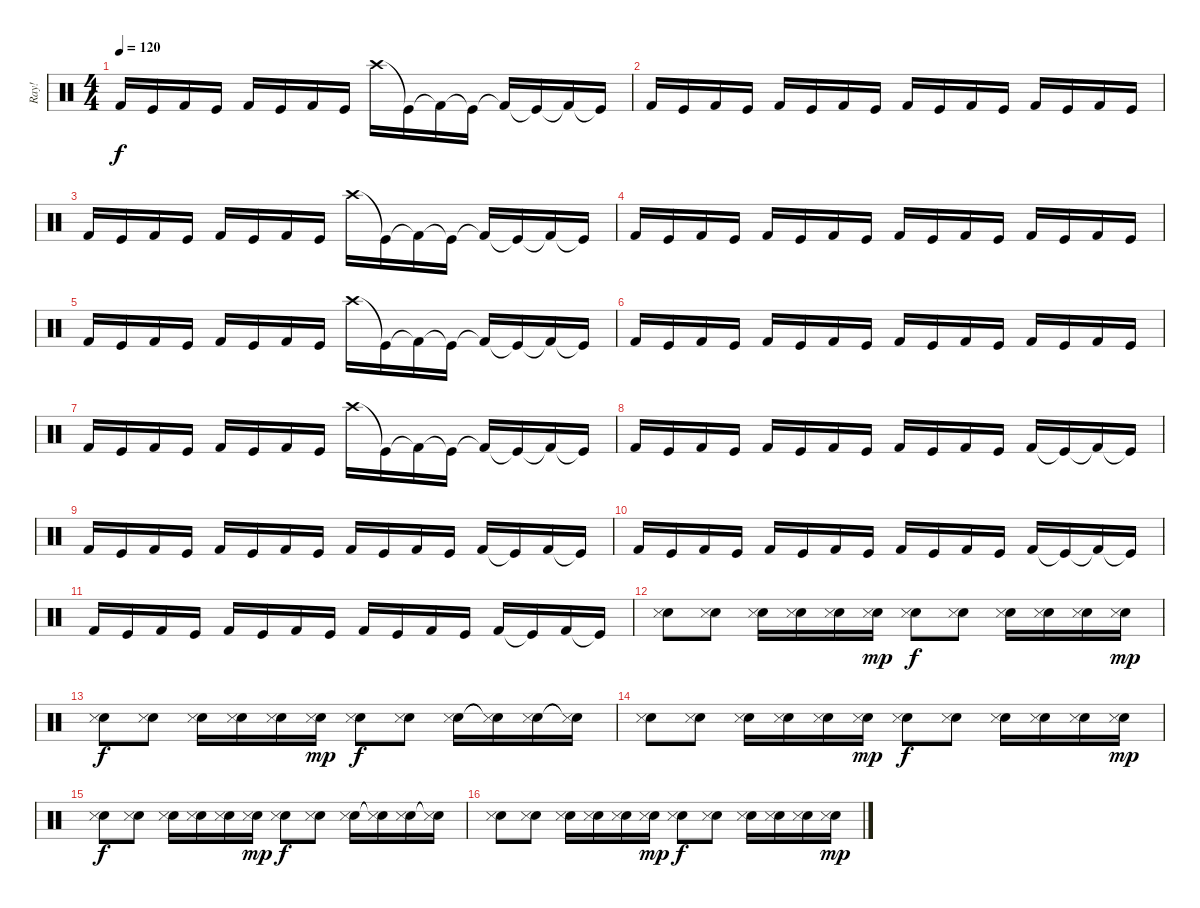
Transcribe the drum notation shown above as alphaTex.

\track ("Ray!" "Ray!") {instrument percussion}
\staff {score}
\articulation defaults
\ts (4 4)
\tempo 120
\clef neutral
\ks c "Kick (hit) 2".16{dy f} "Kick (hit)".16 "Kick (hit) 2".16 "Kick (hit)".16 "Kick (hit) 2".16 "Kick (hit)".16 "Kick (hit) 2".16 "Kick (hit)".16 "Crash high (hit)".16 "Kick (hit)"{t}.16 "Kick (hit) 2"{t}.16 "Kick (hit)"{t}.16 "Kick (hit) 2"{t}.16 "Kick (hit)"{t}.16 "Kick (hit) 2"{t}.16 "Kick (hit)"{t}.16
|
"Kick (hit) 2".16 "Kick (hit)".16 "Kick (hit) 2".16 "Kick (hit)".16 "Kick (hit) 2".16 "Kick (hit)".16 "Kick (hit) 2".16 "Kick (hit)".16 "Kick (hit) 2".16 "Kick (hit)".16 "Kick (hit) 2".16 "Kick (hit)".16 "Kick (hit) 2".16 "Kick (hit)".16 "Kick (hit) 2".16 "Kick (hit)".16 |
"Kick (hit) 2".16 "Kick (hit)".16 "Kick (hit) 2".16 "Kick (hit)".16 "Kick (hit) 2".16 "Kick (hit)".16 "Kick (hit) 2".16 "Kick (hit)".16 "Crash high (hit)".16 "Kick (hit)"{t}.16 "Kick (hit) 2"{t}.16 "Kick (hit)"{t}.16 "Kick (hit) 2"{t}.16 "Kick (hit)"{t}.16 "Kick (hit) 2"{t}.16 "Kick (hit)"{t}.16 |
"Kick (hit) 2".16 "Kick (hit)".16 "Kick (hit) 2".16 "Kick (hit)".16 "Kick (hit) 2".16 "Kick (hit)".16 "Kick (hit) 2".16 "Kick (hit)".16 "Kick (hit) 2".16 "Kick (hit)".16 "Kick (hit) 2".16 "Kick (hit)".16 "Kick (hit) 2".16 "Kick (hit)".16 "Kick (hit) 2".16 "Kick (hit)".16 |
"Kick (hit) 2".16 "Kick (hit)".16 "Kick (hit) 2".16 "Kick (hit)".16 "Kick (hit) 2".16 "Kick (hit)".16 "Kick (hit) 2".16 "Kick (hit)".16 "Crash high (hit)".16 "Kick (hit)"{t}.16 "Kick (hit) 2"{t}.16 "Kick (hit)"{t}.16 "Kick (hit) 2"{t}.16 "Kick (hit)"{t}.16 "Kick (hit) 2"{t}.16 "Kick (hit)"{t}.16 |
"Kick (hit) 2".16 "Kick (hit)".16 "Kick (hit) 2".16 "Kick (hit)".16 "Kick (hit) 2".16 "Kick (hit)".16 "Kick (hit) 2".16 "Kick (hit)".16 "Kick (hit) 2".16 "Kick (hit)".16 "Kick (hit) 2".16 "Kick (hit)".16 "Kick (hit) 2".16 "Kick (hit)".16 "Kick (hit) 2".16 "Kick (hit)".16 |
"Kick (hit) 2".16 "Kick (hit)".16 "Kick (hit) 2".16 "Kick (hit)".16 "Kick (hit) 2".16 "Kick (hit)".16 "Kick (hit) 2".16 "Kick (hit)".16 "Crash high (hit)".16 "Kick (hit)"{t}.16 "Kick (hit) 2"{t}.16 "Kick (hit)"{t}.16 "Kick (hit) 2"{t}.16 "Kick (hit)"{t}.16 "Kick (hit) 2"{t}.16 "Kick (hit)"{t}.16 |
"Kick (hit) 2".16 "Kick (hit)".16 "Kick (hit) 2".16 "Kick (hit)".16 "Kick (hit) 2".16 "Kick (hit)".16 "Kick (hit) 2".16 "Kick (hit)".16 "Kick (hit) 2".16 "Kick (hit)".16 "Kick (hit) 2".16 "Kick (hit)".16 "Kick (hit) 2".16 "Kick (hit)"{t}.16 "Kick (hit) 2"{t}.16 "Kick (hit)"{t}.16 |
"Kick (hit) 2".16 "Kick (hit)".16 "Kick (hit) 2".16 "Kick (hit)".16 "Kick (hit) 2".16 "Kick (hit)".16 "Kick (hit) 2".16 "Kick (hit)".16 "Kick (hit) 2".16 "Kick (hit)".16 "Kick (hit) 2".16 "Kick (hit)".16 "Kick (hit) 2".16 "Kick (hit)"{t}.16 "Kick (hit) 2".16 "Kick (hit)"{t}.16 |
"Kick (hit) 2".16 "Kick (hit)".16 "Kick (hit) 2".16 "Kick (hit)".16 "Kick (hit) 2".16 "Kick (hit)".16 "Kick (hit) 2".16 "Kick (hit)".16 "Kick (hit) 2".16 "Kick (hit)".16 "Kick (hit) 2".16 "Kick (hit)".16 "Kick (hit) 2".16 "Kick (hit)"{t}.16 "Kick (hit) 2"{t}.16 "Kick (hit)"{t}.16 |
"Kick (hit) 2".16 "Kick (hit)".16 "Kick (hit) 2".16 "Kick (hit)".16 "Kick (hit) 2".16 "Kick (hit)".16 "Kick (hit) 2".16 "Kick (hit)".16 "Kick (hit) 2".16 "Kick (hit)".16 "Kick (hit) 2".16 "Kick (hit)".16 "Kick (hit) 2".16 "Kick (hit)"{t}.16 "Kick (hit) 2".16 "Kick (hit)"{t}.16 |
("Snare (hit) 2" "Snare (side stick) 3").8 ("Snare (hit) 2" "Snare (side stick) 3").8 ("Snare (hit) 2" "Snare (side stick) 3").16 ("Snare (hit) 2" "Snare (side stick) 3").16 ("Snare (hit) 2" "Snare (side stick) 3").16 ("Snare (hit) 2" "Snare (side stick) 3").16{dy mp} ("Snare (hit) 2" "Snare (side stick) 3").8{dy f} ("Snare (hit) 2" "Snare (side stick) 3").8 ("Snare (hit) 2" "Snare (side stick) 3").16 ("Snare (hit) 2" "Snare (side stick) 3").16 ("Snare (hit) 2" "Snare (side stick) 3").16 ("Snare (hit) 2" "Snare (side stick) 3").16{dy mp} |
("Snare (hit) 2" "Snare (side stick) 3").8{dy f} ("Snare (hit) 2" "Snare (side stick) 3").8 ("Snare (hit) 2" "Snare (side stick) 3").16 ("Snare (hit) 2" "Snare (side stick) 3").16 ("Snare (hit) 2" "Snare (side stick) 3").16 ("Snare (hit) 2" "Snare (side stick) 3").16{dy mp} ("Snare (hit) 2" "Snare (side stick) 3").8{dy f} ("Snare (hit) 2" "Snare (side stick) 3").8 ("Snare (hit) 2" "Snare (side stick) 3").16 ("Snare (hit) 2"{t} "Snare (side stick) 3"{t}).16 ("Snare (hit) 2" "Snare (side stick) 3").16 ("Snare (hit) 2"{t} "Snare (side stick) 3"{t}).16 |
("Snare (hit) 2" "Snare (side stick) 3").8 ("Snare (hit) 2" "Snare (side stick) 3").8 ("Snare (hit) 2" "Snare (side stick) 3").16 ("Snare (hit) 2" "Snare (side stick) 3").16 ("Snare (hit) 2" "Snare (side stick) 3").16 ("Snare (hit) 2" "Snare (side stick) 3").16{dy mp} ("Snare (hit) 2" "Snare (side stick) 3").8{dy f} ("Snare (hit) 2" "Snare (side stick) 3").8 ("Snare (hit) 2" "Snare (side stick) 3").16 ("Snare (hit) 2" "Snare (side stick) 3").16 ("Snare (hit) 2" "Snare (side stick) 3").16 ("Snare (hit) 2" "Snare (side stick) 3").16{dy mp} |
("Snare (hit) 2" "Snare (side stick) 3").8{dy f} ("Snare (hit) 2" "Snare (side stick) 3").8 ("Snare (hit) 2" "Snare (side stick) 3").16 ("Snare (hit) 2" "Snare (side stick) 3").16 ("Snare (hit) 2" "Snare (side stick) 3").16 ("Snare (hit) 2" "Snare (side stick) 3").16{dy mp} ("Snare (hit) 2" "Snare (side stick) 3").8{dy f} ("Snare (hit) 2" "Snare (side stick) 3").8 ("Snare (hit) 2" "Snare (side stick) 3").16 ("Snare (hit) 2"{t} "Snare (side stick) 3"{t}).16 ("Snare (hit) 2" "Snare (side stick) 3").16 ("Snare (hit) 2"{t} "Snare (side stick) 3"{t}).16 |
("Snare (hit) 2" "Snare (side stick) 3").8 ("Snare (hit) 2" "Snare (side stick) 3").8 ("Snare (hit) 2" "Snare (side stick) 3").16 ("Snare (hit) 2" "Snare (side stick) 3").16 ("Snare (hit) 2" "Snare (side stick) 3").16 ("Snare (hit) 2" "Snare (side stick) 3").16{dy mp} ("Snare (hit) 2" "Snare (side stick) 3").8{dy f} ("Snare (hit) 2" "Snare (side stick) 3").8 ("Snare (hit) 2" "Snare (side stick) 3").16 ("Snare (hit) 2" "Snare (side stick) 3").16 ("Snare (hit) 2" "Snare (side stick) 3").16 ("Snare (hit) 2" "Snare (side stick) 3").16{dy mp}
